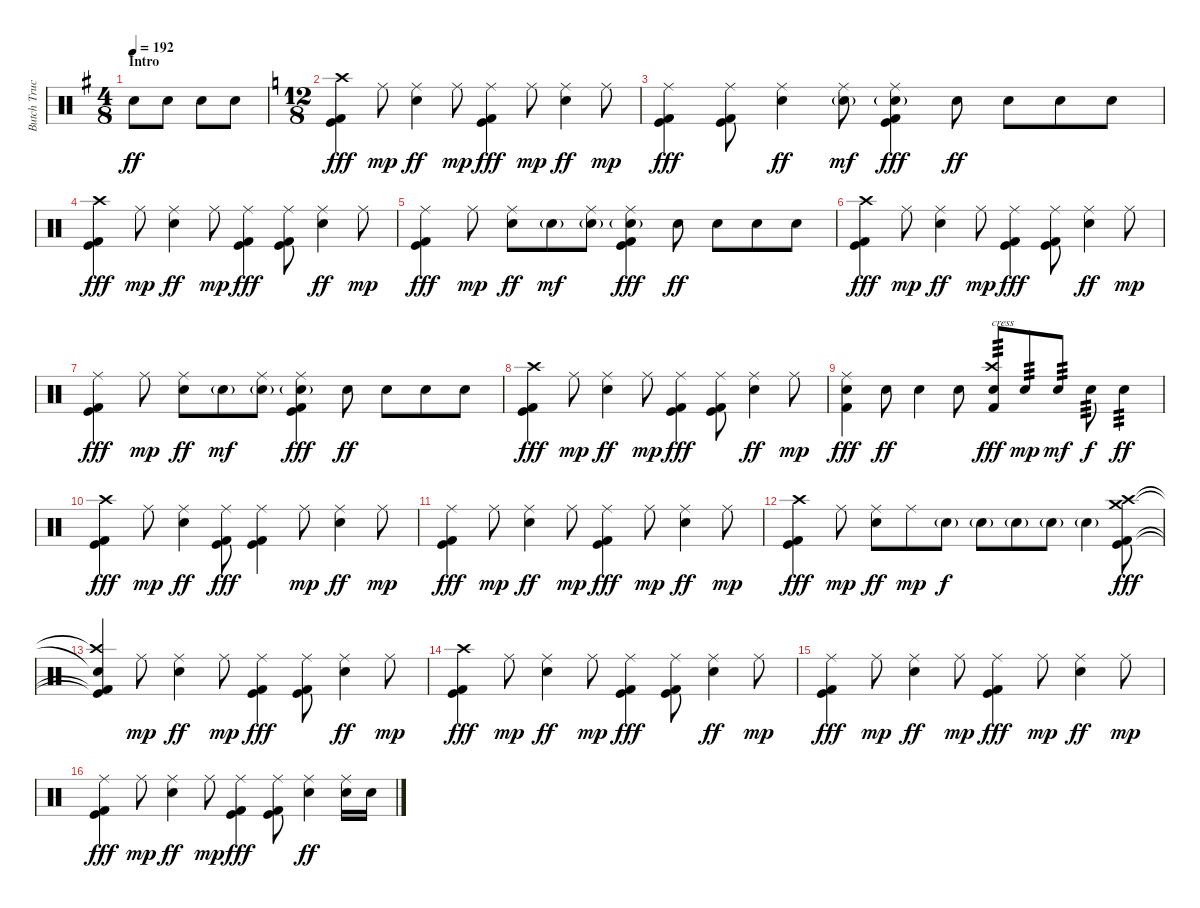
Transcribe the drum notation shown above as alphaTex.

\track ("Butch Trucks, Jaimoe - Drums" "Butch Truc") {instrument percussion}
\staff {score}
\articulation defaults
\ts (4 8)
\section ("" "Intro")
\tempo 192
\clef neutral
\ks g "Snare (hit) 2".8{dy ff} "Snare (hit) 2".8 "Snare (hit) 2".8 "Snare (hit) 2".8
|
\ts (12 8)
\ks c
("Crash high (hit)" "Kick (hit)" "Kick (hit) 2").4{dy fff} "Ride (middle)".8{dy mp} ("Ride (middle)" "Snare (hit) 2").4{dy ff} "Ride (middle)".8{dy mp} ("Ride (middle)" "Kick (hit)" "Kick (hit) 2").4{dy fff} "Ride (middle)".8{dy mp} ("Ride (middle)" "Snare (hit) 2").4{dy ff} "Ride (middle)".8{dy mp} |
("Ride (middle)" "Kick (hit)" "Kick (hit) 2").4{dy fff} ("Ride (middle)" "Kick (hit)" "Kick (hit) 2").8 ("Ride (middle)" "Snare (hit) 2").4{dy ff} ("Ride (middle)" "Snare (hit) 2"{g}).8{dy mf} ("Ride (middle)" "Snare (hit) 2"{g} "Kick (hit)" "Kick (hit) 2").4{dy fff} "Snare (hit) 2".8{dy ff} "Snare (hit) 2".8 "Snare (hit) 2".8 "Snare (hit) 2".8 |
("Crash high (hit)" "Kick (hit)" "Kick (hit) 2").4{dy fff} "Ride (middle)".8{dy mp} ("Ride (middle)" "Snare (hit) 2").4{dy ff} "Ride (middle)".8{dy mp} ("Ride (middle)" "Kick (hit)" "Kick (hit) 2").4{dy fff} ("Ride (middle)" "Kick (hit)" "Kick (hit) 2").8 ("Ride (middle)" "Snare (hit) 2").4{dy ff} "Ride (middle)".8{dy mp} |
("Ride (middle)" "Kick (hit)" "Kick (hit) 2").4{dy fff} "Ride (middle)".8{dy mp} ("Ride (middle)" "Snare (hit) 2").8{dy ff} "Snare (hit) 2"{g}.8{dy mf} ("Ride (middle)" "Snare (hit) 2"{g}).8 ("Ride (middle)" "Snare (hit) 2"{g} "Kick (hit)" "Kick (hit) 2").4{dy fff} "Snare (hit) 2".8{dy ff} "Snare (hit) 2".8 "Snare (hit) 2".8 "Snare (hit) 2".8 |
("Crash high (hit)" "Kick (hit)" "Kick (hit) 2").4{dy fff} "Ride (middle)".8{dy mp} ("Ride (middle)" "Snare (hit) 2").4{dy ff} "Ride (middle)".8{dy mp} ("Ride (middle)" "Kick (hit)" "Kick (hit) 2").4{dy fff} ("Ride (middle)" "Kick (hit)" "Kick (hit) 2").8 ("Ride (middle)" "Snare (hit) 2").4{dy ff} "Ride (middle)".8{dy mp} |
("Ride (middle)" "Kick (hit)" "Kick (hit) 2").4{dy fff} "Ride (middle)".8{dy mp} ("Ride (middle)" "Snare (hit) 2").8{dy ff} "Snare (hit) 2"{g}.8{dy mf} ("Ride (middle)" "Snare (hit) 2"{g}).8 ("Ride (middle)" "Snare (hit) 2"{g} "Kick (hit)" "Kick (hit) 2").4{dy fff} "Snare (hit) 2".8{dy ff} "Snare (hit) 2".8 "Snare (hit) 2".8 "Snare (hit) 2".8 |
("Crash high (hit)" "Kick (hit)" "Kick (hit) 2").4{dy fff} "Ride (middle)".8{dy mp} ("Ride (middle)" "Snare (hit) 2").4{dy ff} "Ride (middle)".8{dy mp} ("Ride (middle)" "Kick (hit)" "Kick (hit) 2").4{dy fff} ("Ride (middle)" "Kick (hit)" "Kick (hit) 2").8 ("Ride (middle)" "Snare (hit) 2").4{dy ff} "Ride (middle)".8{dy mp} |
("Ride (middle)" "Snare (hit) 2" "Kick (hit) 2").4{dy fff} "Snare (hit) 2".8{dy ff} "Snare (hit) 2".4 "Snare (hit) 2".8 ("Crash high (hit)" "Snare (hit) 2" "Kick (hit) 2").8{txt "cress" tp 3 dy fff} "Snare (hit) 2".8{tp 3 dy mp} "Snare (hit) 2".8{tp 3 dy mf} "Snare (hit) 2".8{tp 3 dy f} "Snare (hit) 2".4{tp 3 dy ff} |
("Crash high (hit)" "Kick (hit)" "Kick (hit) 2").4{dy fff} "Ride (middle)".8{dy mp} ("Ride (middle)" "Snare (hit) 2").4{dy ff} ("Ride (middle)" "Kick (hit)" "Kick (hit) 2").8{dy fff} ("Ride (middle)" "Kick (hit)" "Kick (hit) 2").4 "Ride (middle)".8{dy mp} ("Ride (middle)" "Snare (hit) 2").4{dy ff} "Ride (middle)".8{dy mp} |
("Ride (middle)" "Kick (hit)" "Kick (hit) 2").4{dy fff} "Ride (middle)".8{dy mp} ("Ride (middle)" "Snare (hit) 2").4{dy ff} "Ride (middle)".8{dy mp} ("Ride (middle)" "Kick (hit)" "Kick (hit) 2").4{dy fff} "Ride (middle)".8{dy mp} ("Ride (middle)" "Snare (hit) 2").4{dy ff} "Ride (middle)".8{dy mp} |
("Crash high (hit)" "Kick (hit)" "Kick (hit) 2").4{dy fff} "Ride (middle)".8{dy mp} ("Ride (middle)" "Snare (hit) 2").8{dy ff} "Ride (middle)".8{dy mp} "Snare (hit) 2"{g}.8{dy f} "Snare (hit) 2"{g}.8 "Snare (hit) 2"{g}.8 "Snare (hit) 2"{g}.8 "Snare (hit) 2"{g}.4 ("Crash high (hit)" "Crash medium (hit)" "Kick (hit)" "Kick (hit) 2").8{dy fff} |
("Crash high (hit)"{t} "Snare (hit)"{t} "Kick (hit)"{t} "Kick (hit) 2"{t}).4 "Ride (middle)".8{dy mp} ("Ride (middle)" "Snare (hit) 2").4{dy ff} "Ride (middle)".8{dy mp} ("Ride (middle)" "Kick (hit)" "Kick (hit) 2").4{dy fff} ("Ride (middle)" "Kick (hit)" "Kick (hit) 2").8 ("Ride (middle)" "Snare (hit) 2").4{dy ff} "Ride (middle)".8{dy mp} |
("Crash high (hit)" "Kick (hit)" "Kick (hit) 2").4{dy fff} "Ride (middle)".8{dy mp} ("Ride (middle)" "Snare (hit) 2").4{dy ff} "Ride (middle)".8{dy mp} ("Ride (middle)" "Kick (hit)" "Kick (hit) 2").4{dy fff} ("Ride (middle)" "Kick (hit)" "Kick (hit) 2").8 ("Ride (middle)" "Snare (hit) 2").4{dy ff} "Ride (middle)".8{dy mp} |
("Ride (middle)" "Kick (hit)" "Kick (hit) 2").4{dy fff} "Ride (middle)".8{dy mp} ("Ride (middle)" "Snare (hit) 2").4{dy ff} "Ride (middle)".8{dy mp} ("Ride (middle)" "Kick (hit)" "Kick (hit) 2").4{dy fff} "Ride (middle)".8{dy mp} ("Ride (middle)" "Snare (hit) 2").4{dy ff} "Ride (middle)".8{dy mp} |
("Ride (middle)" "Kick (hit)" "Kick (hit) 2").4{dy fff} "Ride (middle)".8{dy mp} ("Ride (middle)" "Snare (hit) 2").4{dy ff} "Ride (middle)".8{dy mp} ("Ride (middle)" "Kick (hit)" "Kick (hit) 2").4{dy fff} ("Ride (middle)" "Kick (hit)" "Kick (hit) 2").8 ("Ride (middle)" "Snare (hit) 2").4{dy ff} ("Ride (middle)" "Snare (hit) 2").16 "Snare (hit) 2".16
